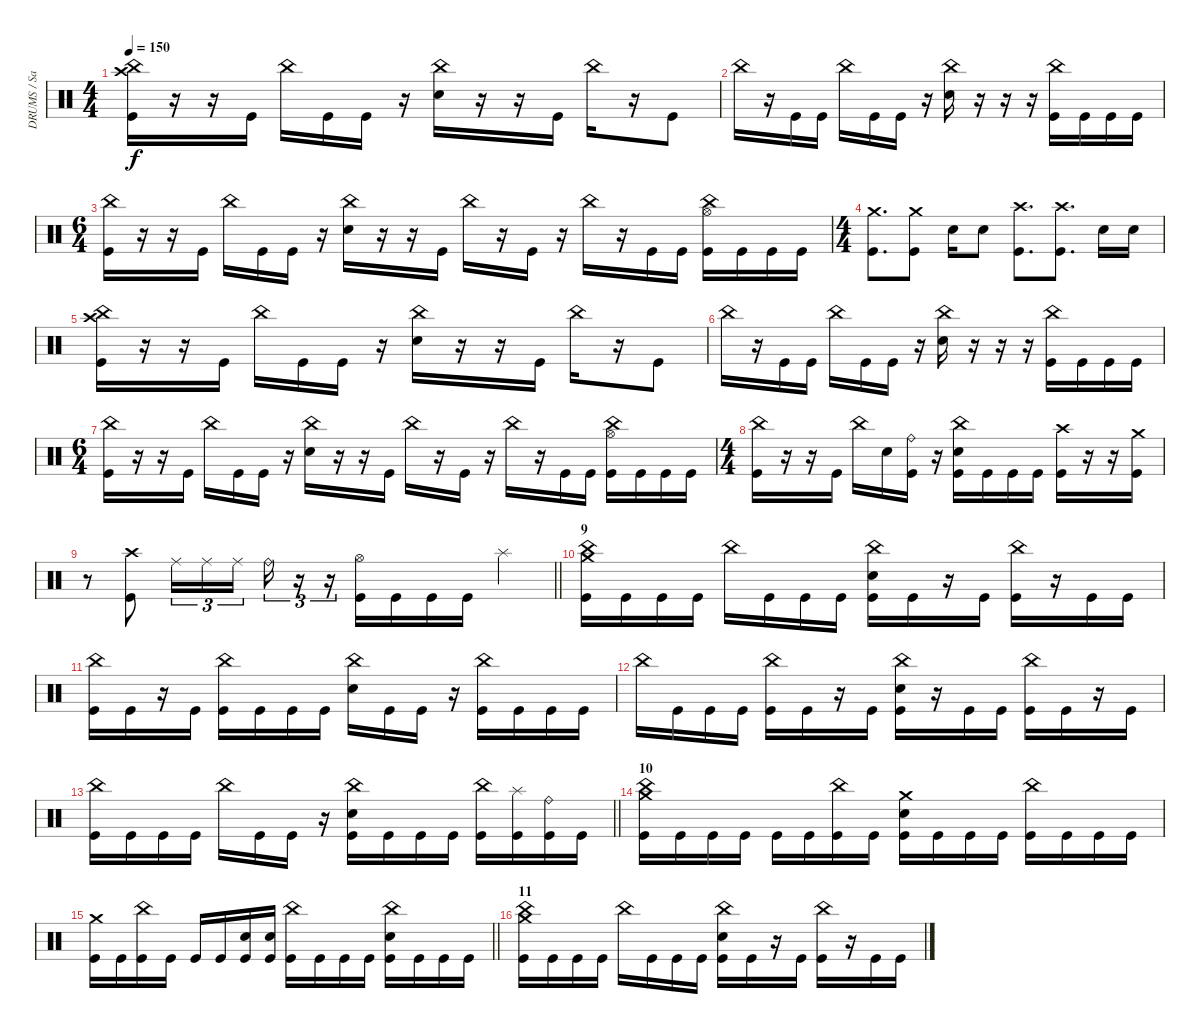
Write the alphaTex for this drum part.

\track ("DRUMS / Sasha" "DRUMS / Sa") {instrument percussion}
\staff {score}
\articulation defaults
\ts (4 4)
\tempo 150
\clef neutral
\ks c
("Crash high (hit)" "China (hit)" "Kick (hit)").16{dy f} r.16 r.16 "Kick (hit)".16 "China (hit)".16 "Kick (hit)".16 "Kick (hit)".16 r.16 ("Snare (hit) 2" "China (hit)").16 r.16 r.16 "Kick (hit)".16 "China (hit)".16 r.16 "Kick (hit)".8 |
"China (hit)".16 r.16 "Kick (hit)".16 "Kick (hit)".16 "China (hit)".16 "Kick (hit)".16 "Kick (hit)".16 r.16 ("Snare (hit) 2" "China (hit)").16 r.16 r.16 r.16 ("Kick (hit)" "China (hit)").16 "Kick (hit)".16 "Kick (hit)".16 "Kick (hit)".16 |
\ts (6 4)
("China (hit)" "Kick (hit)").16 r.16 r.16 "Kick (hit)".16 "China (hit)".16 "Kick (hit)".16 "Kick (hit)".16 r.16 ("China (hit)" "Snare (hit) 2").16 r.16 r.16 "Kick (hit)".16 "China (hit)".16 r.16 "Kick (hit)".16 r.16 "China (hit)".16 r.16 "Kick (hit)".16 "Kick (hit)".16 ("Hi-Hat (open)" "China (hit)" "Kick (hit)").16 "Kick (hit)".16 "Kick (hit)".16 "Kick (hit)".16 |
\ts (4 4)
("Crash medium (hit)" "Kick (hit)").8{d} ("Crash medium (hit)" "Kick (hit)").8 "Snare (hit) 2".16 "Snare (hit) 2".8 ("Crash high (hit)" "Kick (hit)").8{d} ("Crash high (hit)" "Kick (hit)").8{d} "Snare (hit) 2".16 "Snare (hit) 2".16 |
("Crash high (hit)" "China (hit)" "Kick (hit)").16 r.16 r.16 "Kick (hit)".16 "China (hit)".16 "Kick (hit)".16 "Kick (hit)".16 r.16 ("Snare (hit) 2" "China (hit)").16 r.16 r.16 "Kick (hit)".16 "China (hit)".16 r.16 "Kick (hit)".8 |
"China (hit)".16 r.16 "Kick (hit)".16 "Kick (hit)".16 "China (hit)".16 "Kick (hit)".16 "Kick (hit)".16 r.16 ("Snare (hit) 2" "China (hit)").16 r.16 r.16 r.16 ("Kick (hit)" "China (hit)").16 "Kick (hit)".16 "Kick (hit)".16 "Kick (hit)".16 |
\ts (6 4)
("China (hit)" "Kick (hit)").16 r.16 r.16 "Kick (hit)".16 "China (hit)".16 "Kick (hit)".16 "Kick (hit)".16 r.16 ("China (hit)" "Snare (hit) 2").16 r.16 r.16 "Kick (hit)".16 "China (hit)".16 r.16 "Kick (hit)".16 r.16 "China (hit)".16 r.16 "Kick (hit)".16 "Kick (hit)".16 ("Hi-Hat (open)" "China (hit)" "Kick (hit)").16 "Kick (hit)".16 "Kick (hit)".16 "Kick (hit)".16 |
\ts (4 4)
("Kick (hit)" "China (hit)").16 r.16 r.16 "Kick (hit)".16 "China (hit)".16 "Snare (hit) 2".16 ("Ride (bell)" "Kick (hit)").16 r.16 ("China (hit)" "Kick (hit)" "Snare (hit) 2").16 "Kick (hit)".16 "Kick (hit)".16 "Kick (hit)".16 ("Kick (hit)" "Crash high (hit)").16 r.16 r.16 ("Kick (hit)" "Crash medium (hit)").16 |
\barLineRight lightlight
r.8 ("Crash high (hit)" "Kick (hit)").8 "Ride (middle)".16{tu (3 2)} "Ride (middle)".16{tu (3 2)} "Ride (middle)".16{tu (3 2) beam splitsecondary} "Ride (bell)".16{tu (3 2)} r.16{tu (3 2)} r.16{tu (3 2)} ("Hi-Hat (open)" "Kick (hit)").16 "Kick (hit)".16 "Kick (hit)".16 "Kick (hit)".16 "Splash (hit)".4 |
\section ("" "9")
("Crash medium (hit)" "China (hit)" "Kick (hit)").16 "Kick (hit)".16 "Kick (hit)".16 "Kick (hit)".16 "China (hit)".16 "Kick (hit)".16 "Kick (hit)".16 "Kick (hit)".16 ("China (hit)" "Snare (hit) 2" "Kick (hit)").16 "Kick (hit)".16 r.16 "Kick (hit)".16 ("China (hit)" "Kick (hit)").16 r.16 "Kick (hit)".16 "Kick (hit)".16 |
("China (hit)" "Kick (hit)").16 "Kick (hit)".16 r.16 "Kick (hit)".16 ("China (hit)" "Kick (hit)").16 "Kick (hit)".16 "Kick (hit)".16 "Kick (hit)".16 ("China (hit)" "Snare (hit) 2").16 "Kick (hit)".16 "Kick (hit)".16 r.16 ("China (hit)" "Kick (hit)").16 "Kick (hit)".16 "Kick (hit)".16 "Kick (hit)".16 |
"China (hit)".16 "Kick (hit)".16 "Kick (hit)".16 "Kick (hit)".16 ("China (hit)" "Kick (hit)").16 "Kick (hit)".16 r.16 "Kick (hit)".16 ("China (hit)" "Snare (hit) 2" "Kick (hit)").16 r.16 "Kick (hit)".16 "Kick (hit)".16 ("China (hit)" "Kick (hit)").16 "Kick (hit)".16 r.16 "Kick (hit)".16 |
\barLineRight lightlight
("China (hit)" "Kick (hit)").16 "Kick (hit)".16 "Kick (hit)".16 "Kick (hit)".16 "China (hit)".16 "Kick (hit)".16 "Kick (hit)".16 r.16 ("China (hit)" "Snare (hit) 2" "Kick (hit)").16 "Kick (hit)".16 "Kick (hit)".16 "Kick (hit)".16 ("China (hit)" "Kick (hit)").16 ("Splash (hit)" "Kick (hit)").16 ("Ride (bell)" "Kick (hit)").16 "Kick (hit)".16 |
\section ("" "10")
("Crash medium (hit)" "China (hit)" "Kick (hit)").16 "Kick (hit)".16 "Kick (hit)".16 "Kick (hit)".16 "Kick (hit)".16 "Kick (hit)".16 ("China (hit)" "Kick (hit)").16 "Kick (hit)".16 ("Crash medium (hit)" "Snare (hit) 2" "Kick (hit)").16 "Kick (hit)".16 "Kick (hit)".16 "Kick (hit)".16 ("China (hit)" "Kick (hit)").16 "Kick (hit)".16 "Kick (hit)".16 "Kick (hit)".16 |
\barLineRight lightlight
("Crash medium (hit)" "Kick (hit)").16 "Kick (hit)".16 ("China (hit)" "Kick (hit)").16 "Kick (hit)".16 "Kick (hit)".16 "Kick (hit)".16 ("Snare (hit) 2" "Kick (hit)").16 ("Snare (hit) 2" "Kick (hit)").16 ("China (hit)" "Kick (hit)").16 "Kick (hit)".16 "Kick (hit)".16 "Kick (hit)".16 ("China (hit)" "Snare (hit) 2" "Kick (hit)").16 "Kick (hit)".16 "Kick (hit)".16 "Kick (hit)".16 |
\section ("" "11")
("Kick (hit)" "China (hit)" "Crash medium (hit)").16 "Kick (hit)".16 "Kick (hit)".16 "Kick (hit)".16 "China (hit)".16 "Kick (hit)".16 "Kick (hit)".16 "Kick (hit)".16 ("Kick (hit)" "China (hit)" "Snare (hit) 2").16 "Kick (hit)".16 r.16 "Kick (hit)".16 ("Kick (hit)" "China (hit)").16 r.16 "Kick (hit)".16 "Kick (hit)".16
